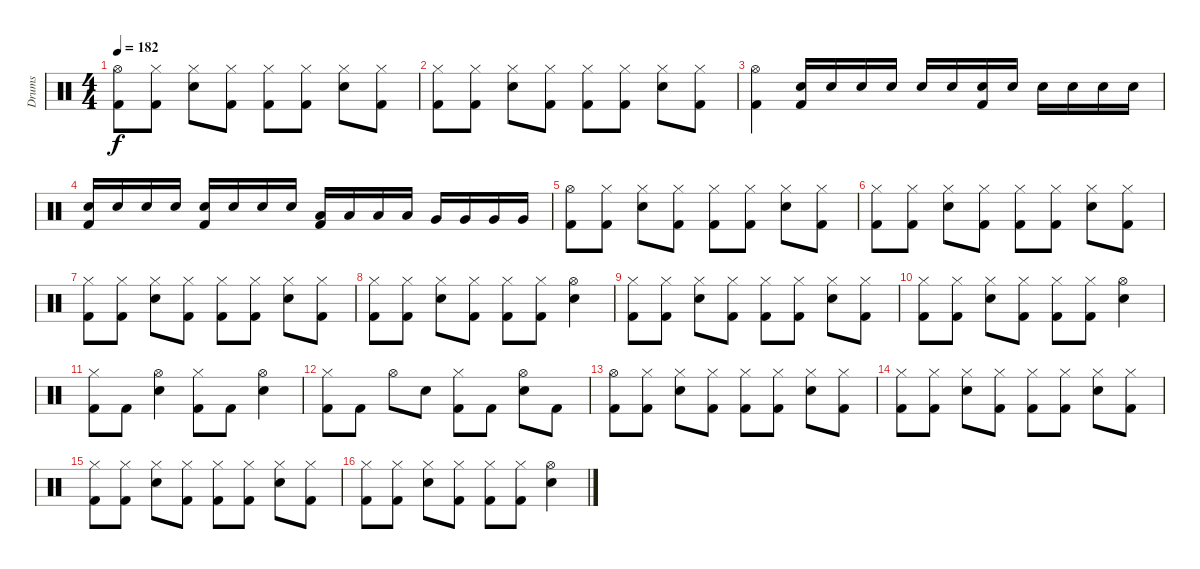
\track ("Drums" "Drums") {instrument percussion}
\staff {score}
\articulation defaults
\ts (4 4)
\tempo 182
\clef neutral
\ks c
("Kick (hit) 2" "Hi-Hat (open)").8{dy f} ("Kick (hit) 2" "Hi-Hat (closed)").8 ("Snare (hit) 2" "Hi-Hat (closed)").8 ("Kick (hit) 2" "Hi-Hat (closed)").8 ("Kick (hit) 2" "Hi-Hat (closed)").8 ("Kick (hit) 2" "Hi-Hat (closed)").8 ("Snare (hit) 2" "Hi-Hat (closed)").8 ("Kick (hit) 2" "Hi-Hat (closed)").8 |
("Kick (hit) 2" "Hi-Hat (closed)").8 ("Kick (hit) 2" "Hi-Hat (closed)").8 ("Snare (hit) 2" "Hi-Hat (closed)").8 ("Kick (hit) 2" "Hi-Hat (closed)").8 ("Kick (hit) 2" "Hi-Hat (closed)").8 ("Kick (hit) 2" "Hi-Hat (closed)").8 ("Snare (hit) 2" "Hi-Hat (closed)").8 ("Kick (hit) 2" "Hi-Hat (closed)").8 |
("Kick (hit) 2" "Hi-Hat (open)").4 ("Snare (hit) 2" "Kick (hit) 2").16 "Snare (hit) 2".16 "Snare (hit) 2".16 "Snare (hit) 2".16 "Snare (hit) 2".16 "Snare (hit) 2".16 ("Kick (hit) 2" "Snare (hit) 2").16 "Snare (hit) 2".16 "Snare (hit) 2".16 "Snare (hit) 2".16 "Snare (hit) 2".16 "Snare (hit) 2".16 |
("Snare (hit) 2" "Kick (hit) 2").16 "Snare (hit) 2".16 "Snare (hit) 2".16 "Snare (hit) 2".16 ("Snare (hit) 2" "Kick (hit) 2").16 "Snare (hit) 2".16 "Snare (hit) 2".16 "Snare (hit) 2".16 ("Low Tom (hit)" "Kick (hit) 2").16 "Low Tom (hit)".16 "Low Tom (hit)".16 "Low Tom (hit)".16 "Very Low Tom (hit)".16 "Very Low Tom (hit)".16 "Very Low Tom (hit)".16 "Very Low Tom (hit)".16 |
("Kick (hit) 2" "Hi-Hat (open)").8 ("Kick (hit) 2" "Hi-Hat (closed)").8 ("Snare (hit) 2" "Hi-Hat (closed)").8 ("Kick (hit) 2" "Hi-Hat (closed)").8 ("Kick (hit) 2" "Hi-Hat (closed)").8 ("Kick (hit) 2" "Hi-Hat (closed)").8 ("Snare (hit) 2" "Hi-Hat (closed)").8 ("Kick (hit) 2" "Hi-Hat (closed)").8 |
("Kick (hit) 2" "Hi-Hat (closed)").8 ("Kick (hit) 2" "Hi-Hat (closed)").8 ("Snare (hit) 2" "Hi-Hat (closed)").8 ("Kick (hit) 2" "Hi-Hat (closed)").8 ("Kick (hit) 2" "Hi-Hat (closed)").8 ("Kick (hit) 2" "Hi-Hat (closed)").8 ("Snare (hit) 2" "Hi-Hat (closed)").8 ("Kick (hit) 2" "Hi-Hat (closed)").8 |
("Kick (hit) 2" "Hi-Hat (closed)").8 ("Kick (hit) 2" "Hi-Hat (closed)").8 ("Snare (hit) 2" "Hi-Hat (closed)").8 ("Kick (hit) 2" "Hi-Hat (closed)").8 ("Kick (hit) 2" "Hi-Hat (closed)").8 ("Kick (hit) 2" "Hi-Hat (closed)").8 ("Snare (hit) 2" "Hi-Hat (closed)").8 ("Kick (hit) 2" "Hi-Hat (closed)").8 |
("Kick (hit) 2" "Hi-Hat (closed)").8 ("Kick (hit) 2" "Hi-Hat (closed)").8 ("Snare (hit) 2" "Hi-Hat (closed)").8 ("Kick (hit) 2" "Hi-Hat (closed)").8 ("Kick (hit) 2" "Hi-Hat (closed)").8 ("Kick (hit) 2" "Hi-Hat (closed)").8 ("Snare (hit) 2" "Hi-Hat (open)").4 |
("Kick (hit) 2" "Hi-Hat (closed)").8 ("Kick (hit) 2" "Hi-Hat (closed)").8 ("Snare (hit) 2" "Hi-Hat (closed)").8 ("Kick (hit) 2" "Hi-Hat (closed)").8 ("Kick (hit) 2" "Hi-Hat (closed)").8 ("Kick (hit) 2" "Hi-Hat (closed)").8 ("Snare (hit) 2" "Hi-Hat (closed)").8 ("Kick (hit) 2" "Hi-Hat (closed)").8 |
("Kick (hit) 2" "Hi-Hat (closed)").8 ("Kick (hit) 2" "Hi-Hat (closed)").8 ("Snare (hit) 2" "Hi-Hat (closed)").8 ("Kick (hit) 2" "Hi-Hat (closed)").8 ("Kick (hit) 2" "Hi-Hat (closed)").8 ("Kick (hit) 2" "Hi-Hat (closed)").8 ("Snare (hit) 2" "Hi-Hat (open)").4 |
("Kick (hit) 2" "Hi-Hat (closed)").8 "Kick (hit) 2".8 ("Snare (hit) 2" "Hi-Hat (open)").4 ("Kick (hit) 2" "Hi-Hat (closed)").8 "Kick (hit) 2".8 ("Snare (hit) 2" "Hi-Hat (open)").4 |
("Kick (hit) 2" "Hi-Hat (closed)").8 "Kick (hit) 2".8 "Hi-Hat (open)".8 "Snare (hit) 2".8 ("Kick (hit) 2" "Hi-Hat (closed)").8 "Kick (hit) 2".8 ("Snare (hit) 2" "Hi-Hat (open)").8 "Kick (hit) 2".8 |
("Kick (hit) 2" "Hi-Hat (open)").8 ("Kick (hit) 2" "Hi-Hat (closed)").8 ("Snare (hit) 2" "Hi-Hat (closed)").8 ("Kick (hit) 2" "Hi-Hat (closed)").8 ("Kick (hit) 2" "Hi-Hat (closed)").8 ("Kick (hit) 2" "Hi-Hat (closed)").8 ("Snare (hit) 2" "Hi-Hat (closed)").8 ("Kick (hit) 2" "Hi-Hat (closed)").8 |
("Kick (hit) 2" "Hi-Hat (closed)").8 ("Kick (hit) 2" "Hi-Hat (closed)").8 ("Snare (hit) 2" "Hi-Hat (closed)").8 ("Kick (hit) 2" "Hi-Hat (closed)").8 ("Kick (hit) 2" "Hi-Hat (closed)").8 ("Kick (hit) 2" "Hi-Hat (closed)").8 ("Snare (hit) 2" "Hi-Hat (closed)").8 ("Kick (hit) 2" "Hi-Hat (closed)").8 |
("Kick (hit) 2" "Hi-Hat (closed)").8 ("Kick (hit) 2" "Hi-Hat (closed)").8 ("Snare (hit) 2" "Hi-Hat (closed)").8 ("Kick (hit) 2" "Hi-Hat (closed)").8 ("Kick (hit) 2" "Hi-Hat (closed)").8 ("Kick (hit) 2" "Hi-Hat (closed)").8 ("Snare (hit) 2" "Hi-Hat (closed)").8 ("Kick (hit) 2" "Hi-Hat (closed)").8 |
("Kick (hit) 2" "Hi-Hat (closed)").8 ("Kick (hit) 2" "Hi-Hat (closed)").8 ("Snare (hit) 2" "Hi-Hat (closed)").8 ("Kick (hit) 2" "Hi-Hat (closed)").8 ("Kick (hit) 2" "Hi-Hat (closed)").8 ("Kick (hit) 2" "Hi-Hat (closed)").8 ("Snare (hit) 2" "Hi-Hat (open)").4
